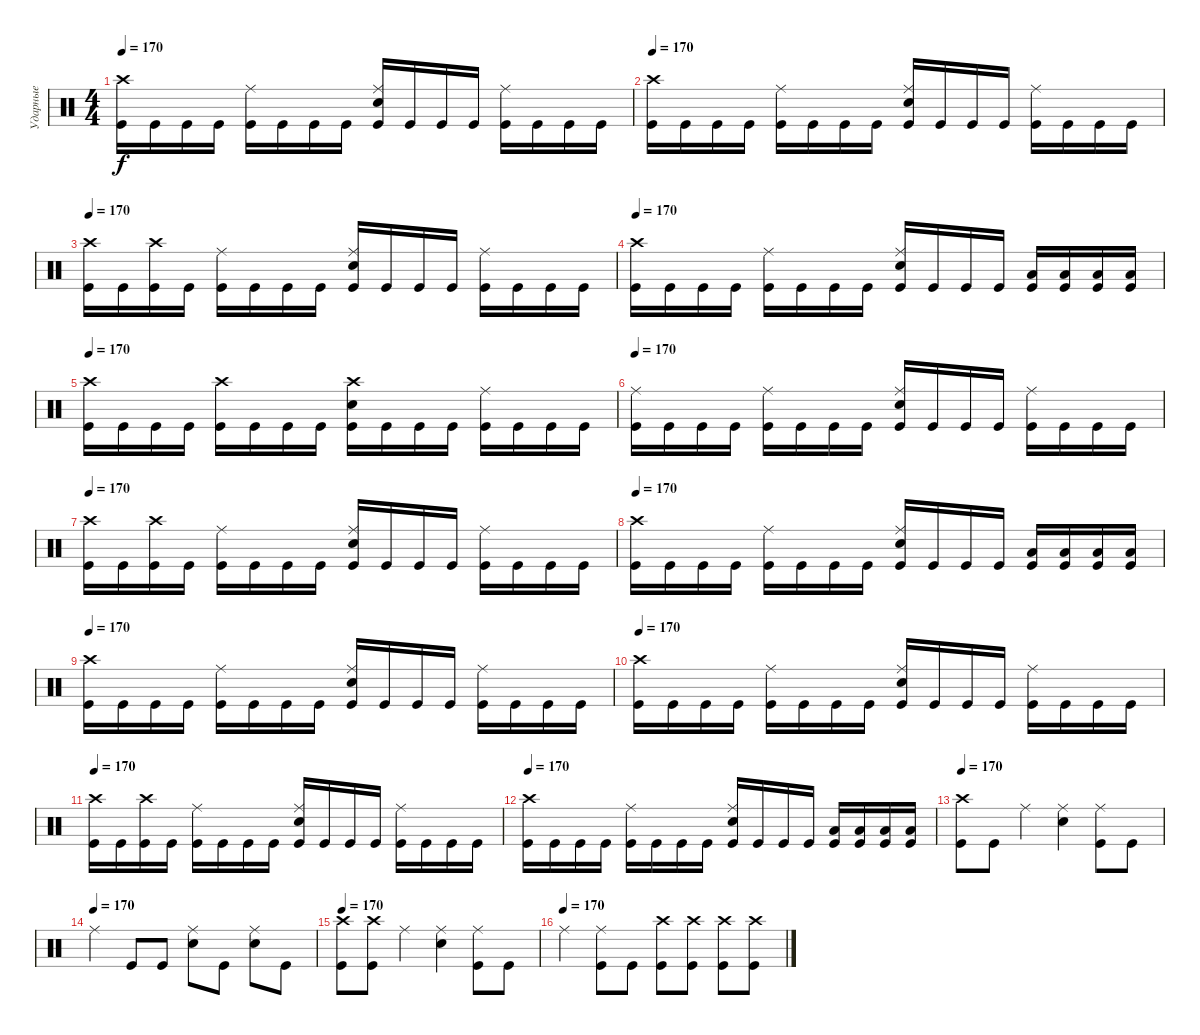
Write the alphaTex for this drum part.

\track ("Ударные" "Ударные") {instrument percussion}
\staff {score}
\articulation defaults
\ts (4 4)
\tempo 170
\clef neutral
\ks c
("Crash high (hit)" "Kick (hit)").16{dy f} "Kick (hit)".16 "Kick (hit)".16 "Kick (hit)".16 ("Ride (middle)" "Kick (hit)").16 "Kick (hit)".16 "Kick (hit)".16 "Kick (hit)".16 ("Ride (middle)" "Electric Snare (hit)" "Kick (hit)").16 "Kick (hit)".16 "Kick (hit)".16 "Kick (hit)".16 ("Ride (middle)" "Kick (hit)").16 "Kick (hit)".16 "Kick (hit)".16 "Kick (hit)".16 |
\tempo 170
("Crash high (hit)" "Kick (hit)").16 "Kick (hit)".16 "Kick (hit)".16 "Kick (hit)".16 ("Ride (middle)" "Kick (hit)").16 "Kick (hit)".16 "Kick (hit)".16 "Kick (hit)".16 ("Ride (middle)" "Electric Snare (hit)" "Kick (hit)").16 "Kick (hit)".16 "Kick (hit)".16 "Kick (hit)".16 ("Ride (middle)" "Kick (hit)").16 "Kick (hit)".16 "Kick (hit)".16 "Kick (hit)".16 |
\tempo 170
("Crash high (hit)" "Kick (hit)").16 "Kick (hit)".16 ("Crash high (hit)" "Kick (hit)").16 "Kick (hit)".16 ("Ride (middle)" "Kick (hit)").16 "Kick (hit)".16 "Kick (hit)".16 "Kick (hit)".16 ("Ride (middle)" "Electric Snare (hit)" "Kick (hit)").16 "Kick (hit)".16 "Kick (hit)".16 "Kick (hit)".16 ("Ride (middle)" "Kick (hit)").16 "Kick (hit)".16 "Kick (hit)".16 "Kick (hit)".16 |
\tempo 170
("Crash high (hit)" "Kick (hit)").16 "Kick (hit)".16 "Kick (hit)".16 "Kick (hit)".16 ("Ride (middle)" "Kick (hit)").16 "Kick (hit)".16 "Kick (hit)".16 "Kick (hit)".16 ("Ride (middle)" "Electric Snare (hit)" "Kick (hit)").16 "Kick (hit)".16 "Kick (hit)".16 "Kick (hit)".16 ("Low Tom (hit)" "Kick (hit)").16 ("Low Tom (hit)" "Kick (hit)").16 ("Low Tom (hit)" "Kick (hit)").16 ("Low Tom (hit)" "Kick (hit)").16 |
\tempo 170
("Crash high (hit)" "Kick (hit)").16 "Kick (hit)".16 "Kick (hit)".16 "Kick (hit)".16 ("Crash high (hit)" "Kick (hit)").16 "Kick (hit)".16 "Kick (hit)".16 "Kick (hit)".16 ("Crash high (hit)" "Electric Snare (hit)" "Kick (hit)").16 "Kick (hit)".16 "Kick (hit)".16 "Kick (hit)".16 ("Ride (middle)" "Kick (hit)").16 "Kick (hit)".16 "Kick (hit)".16 "Kick (hit)".16 |
\tempo 170
("Ride (middle)" "Kick (hit)").16 "Kick (hit)".16 "Kick (hit)".16 "Kick (hit)".16 ("Ride (middle)" "Kick (hit)").16 "Kick (hit)".16 "Kick (hit)".16 "Kick (hit)".16 ("Ride (middle)" "Electric Snare (hit)" "Kick (hit)").16 "Kick (hit)".16 "Kick (hit)".16 "Kick (hit)".16 ("Ride (middle)" "Kick (hit)").16 "Kick (hit)".16 "Kick (hit)".16 "Kick (hit)".16 |
\tempo 170
("Crash high (hit)" "Kick (hit)").16 "Kick (hit)".16 ("Crash high (hit)" "Kick (hit)").16 "Kick (hit)".16 ("Ride (middle)" "Kick (hit)").16 "Kick (hit)".16 "Kick (hit)".16 "Kick (hit)".16 ("Ride (middle)" "Electric Snare (hit)" "Kick (hit)").16 "Kick (hit)".16 "Kick (hit)".16 "Kick (hit)".16 ("Ride (middle)" "Kick (hit)").16 "Kick (hit)".16 "Kick (hit)".16 "Kick (hit)".16 |
\tempo 170
("Crash high (hit)" "Kick (hit)").16 "Kick (hit)".16 "Kick (hit)".16 "Kick (hit)".16 ("Ride (middle)" "Kick (hit)").16 "Kick (hit)".16 "Kick (hit)".16 "Kick (hit)".16 ("Ride (middle)" "Electric Snare (hit)" "Kick (hit)").16 "Kick (hit)".16 "Kick (hit)".16 "Kick (hit)".16 ("Low Tom (hit)" "Kick (hit)").16 ("Low Tom (hit)" "Kick (hit)").16 ("Low Tom (hit)" "Kick (hit)").16 ("Low Tom (hit)" "Kick (hit)").16 |
\tempo 170
("Crash high (hit)" "Kick (hit)").16 "Kick (hit)".16 "Kick (hit)".16 "Kick (hit)".16 ("Ride (middle)" "Kick (hit)").16 "Kick (hit)".16 "Kick (hit)".16 "Kick (hit)".16 ("Ride (middle)" "Electric Snare (hit)" "Kick (hit)").16 "Kick (hit)".16 "Kick (hit)".16 "Kick (hit)".16 ("Ride (middle)" "Kick (hit)").16 "Kick (hit)".16 "Kick (hit)".16 "Kick (hit)".16 |
\tempo 170
("Crash high (hit)" "Kick (hit)").16 "Kick (hit)".16 "Kick (hit)".16 "Kick (hit)".16 ("Ride (middle)" "Kick (hit)").16 "Kick (hit)".16 "Kick (hit)".16 "Kick (hit)".16 ("Ride (middle)" "Electric Snare (hit)" "Kick (hit)").16 "Kick (hit)".16 "Kick (hit)".16 "Kick (hit)".16 ("Ride (middle)" "Kick (hit)").16 "Kick (hit)".16 "Kick (hit)".16 "Kick (hit)".16 |
\tempo 170
("Crash high (hit)" "Kick (hit)").16 "Kick (hit)".16 ("Crash high (hit)" "Kick (hit)").16 "Kick (hit)".16 ("Ride (middle)" "Kick (hit)").16 "Kick (hit)".16 "Kick (hit)".16 "Kick (hit)".16 ("Ride (middle)" "Electric Snare (hit)" "Kick (hit)").16 "Kick (hit)".16 "Kick (hit)".16 "Kick (hit)".16 ("Ride (middle)" "Kick (hit)").16 "Kick (hit)".16 "Kick (hit)".16 "Kick (hit)".16 |
\tempo 170
("Crash high (hit)" "Kick (hit)").16 "Kick (hit)".16 "Kick (hit)".16 "Kick (hit)".16 ("Ride (middle)" "Kick (hit)").16 "Kick (hit)".16 "Kick (hit)".16 "Kick (hit)".16 ("Ride (middle)" "Electric Snare (hit)" "Kick (hit)").16 "Kick (hit)".16 "Kick (hit)".16 "Kick (hit)".16 ("Low Tom (hit)" "Kick (hit)").16 ("Low Tom (hit)" "Kick (hit)").16 ("Low Tom (hit)" "Kick (hit)").16 ("Low Tom (hit)" "Kick (hit)").16 |
\tempo 170
("Crash high (hit)" "Kick (hit)").8 "Kick (hit)".8 "Ride (middle)".4 ("Ride (middle)" "Electric Snare (hit)").4 ("Ride (middle)" "Kick (hit)").8 "Kick (hit)".8 |
\tempo (170)
"Ride (middle)".4 "Kick (hit)".8 "Kick (hit)".8 ("Ride (middle)" "Electric Snare (hit)").8 "Kick (hit)".8 ("Ride (middle)" "Electric Snare (hit)").8 "Kick (hit)".8 |
\tempo 170
("Crash high (hit)" "Kick (hit)").8 ("Crash high (hit)" "Kick (hit)").8 "Ride (middle)".4 ("Ride (middle)" "Electric Snare (hit)").4 ("Ride (middle)" "Kick (hit)").8 "Kick (hit)".8 |
\tempo (170)
"Ride (middle)".4 ("Ride (middle)" "Kick (hit)").8 "Kick (hit)".8 ("Crash high (hit)" "Kick (hit)").8 ("Crash high (hit)" "Kick (hit)").8 ("Crash high (hit)" "Kick (hit)").8 ("Crash high (hit)" "Kick (hit)").8
